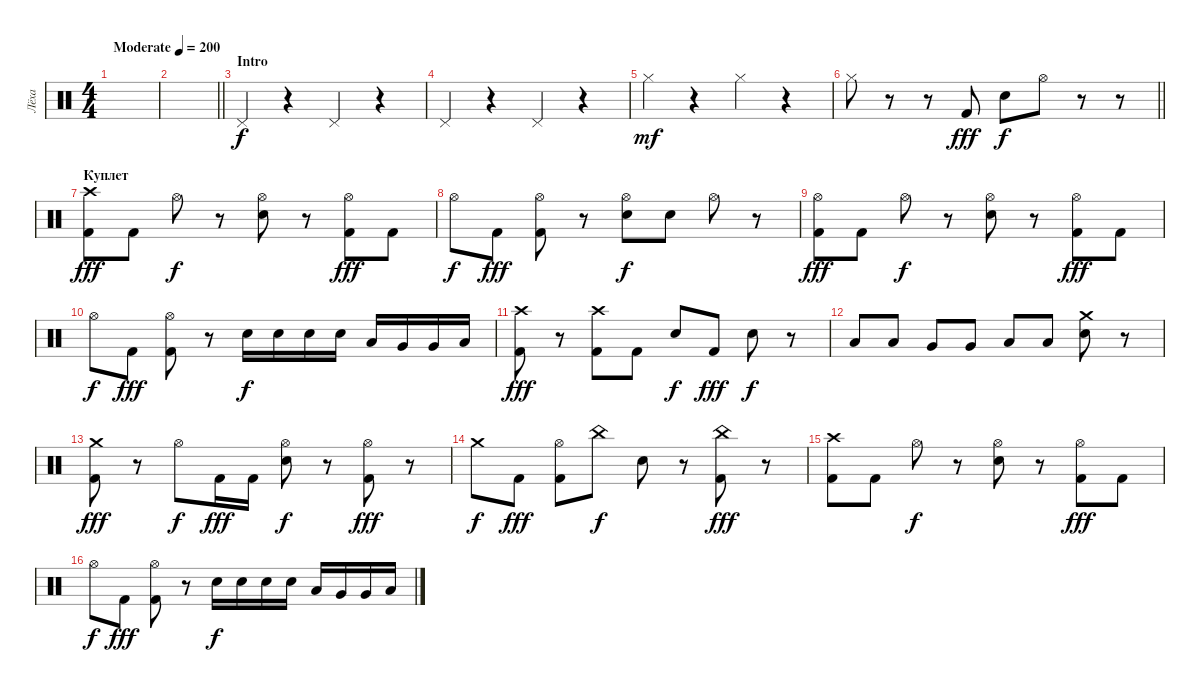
\track ("Лёха" "Лёха") {instrument percussion}
\staff {score}
\articulation defaults
\ts (4 4)
\tempo (200 "Moderate")
\clef neutral
\ks c
|
\barLineRight lightlight
|
\section ("" "Intro")
"Pedal Hi-Hat (hit)".4 r.4 "Pedal Hi-Hat (hit)".4 r.4 |
"Pedal Hi-Hat (hit)".4 r.4 "Pedal Hi-Hat (hit)".4 r.4 |
"Hi-Hat (closed)".4{dy mf} r.4 "Hi-Hat (closed)".4 r.4 |
\barLineRight lightlight "Hi-Hat (closed)".8
r.8 r.8 "Kick (hit) 2".8{dy fff} "Electric Snare (hit)".8{dy f} "Hi-Hat (open)".8 r.8 r.8 |
\section ("" "Куплет")
("Crash high (hit)" "Kick (hit) 2").8{dy fff} "Kick (hit) 2".8 "Hi-Hat (open)".8{dy f} r.8 ("Hi-Hat (open)" "Electric Snare (hit)").8 r.8 ("Hi-Hat (open)" "Kick (hit) 2").8{dy fff} "Kick (hit) 2".8 |
"Hi-Hat (open)".8{dy f} "Kick (hit) 2".8{dy fff} ("Hi-Hat (open)" "Kick (hit) 2").8 r.8 ("Hi-Hat (open)" "Electric Snare (hit)").8{dy f} "Electric Snare (hit)".8 "Hi-Hat (open)".8 r.8 |
("Hi-Hat (open)" "Kick (hit) 2").8{dy fff} "Kick (hit) 2".8 "Hi-Hat (open)".8{dy f} r.8 ("Hi-Hat (open)" "Electric Snare (hit)").8 r.8 ("Hi-Hat (open)" "Kick (hit) 2").8{dy fff} "Kick (hit) 2".8 |
"Hi-Hat (open)".8{dy f} "Kick (hit) 2".8{dy fff} ("Hi-Hat (open)" "Kick (hit) 2").8 r.8 "Electric Snare (hit)".16{dy f} "Electric Snare (hit)".16 "Electric Snare (hit)".16 "Electric Snare (hit)".16 "Low Tom (hit)".16 "Very Low Tom (hit)".16 "Very Low Tom (hit)".16 "Low Floor Tom (hit)".16 |
("Crash high (hit)" "Kick (hit) 2").8{dy fff} r.8 ("Crash high (hit)" "Kick (hit) 2").8 "Kick (hit) 2".8 "Electric Snare (hit)".8{dy f} "Kick (hit) 2".8{dy fff} "Electric Snare (hit)".8{dy f} r.8 |
"Low Tom (hit)".8 "Low Tom (hit)".8 "Very Low Tom (hit)".8 "Very Low Tom (hit)".8 "Low Floor Tom (hit)".8 "Low Floor Tom (hit)".8 ("Crash medium (hit)" "Electric Snare (hit)").8 r.8 |
("Crash medium (hit)" "Kick (hit) 2").8{dy fff} r.8 "Hi-Hat (open)".8{dy f} "Kick (hit) 2".16{dy fff} "Kick (hit) 2".16 ("Hi-Hat (open)" "Electric Snare (hit)").8{dy f} r.8 ("Hi-Hat (open)" "Kick (hit) 2").8{dy fff} r.8 |
"Crash medium (hit)".8{dy f} "Kick (hit) 2".8{dy fff} ("Hi-Hat (open)" "Kick (hit) 2").8 "China (hit)".8{dy f} "Electric Snare (hit)".8 r.8 ("China (hit)" "Kick (hit) 2").8{dy fff} r.8 |
("Crash high (hit)" "Kick (hit) 2").8 "Kick (hit) 2".8 "Hi-Hat (open)".8{dy f} r.8 ("Hi-Hat (open)" "Electric Snare (hit)").8 r.8 ("Hi-Hat (open)" "Kick (hit) 2").8{dy fff} "Kick (hit) 2".8 |
"Hi-Hat (open)".8{dy f} "Kick (hit) 2".8{dy fff} ("Hi-Hat (open)" "Kick (hit) 2").8 r.8 "Electric Snare (hit)".16{dy f} "Electric Snare (hit)".16 "Electric Snare (hit)".16 "Electric Snare (hit)".16 "Low Tom (hit)".16 "Very Low Tom (hit)".16 "Very Low Tom (hit)".16 "Low Floor Tom (hit)".16
